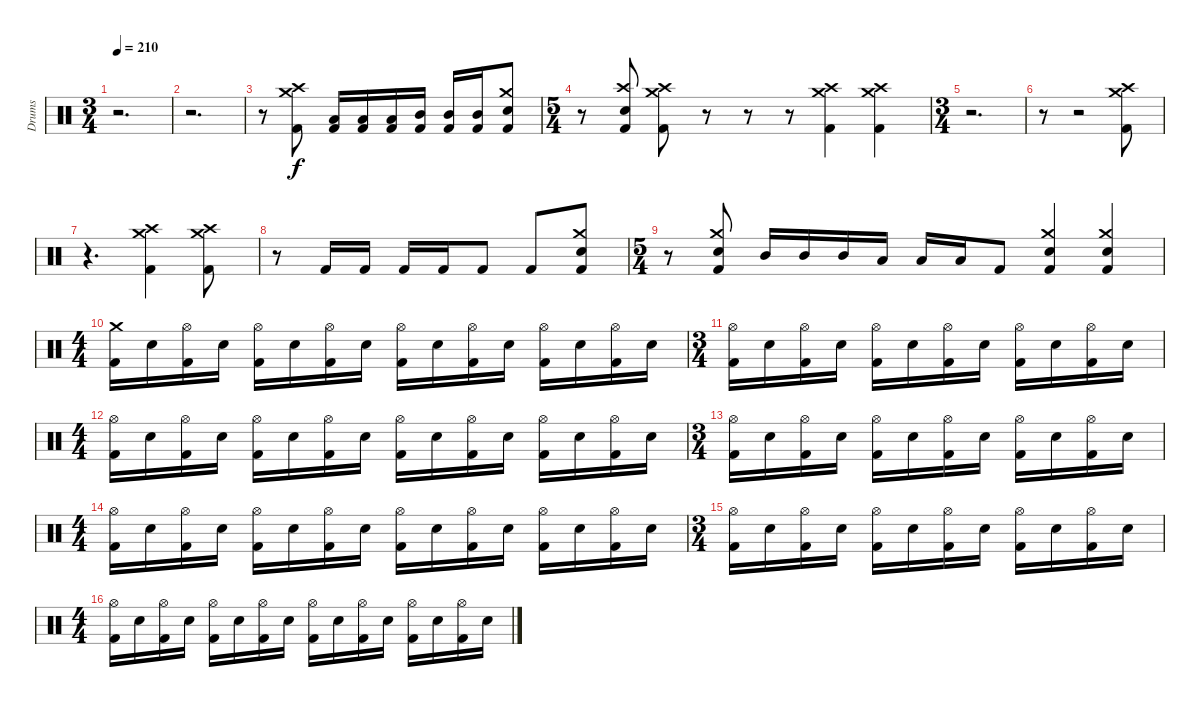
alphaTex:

\track ("Drums" "Drums") {instrument percussion}
\staff {score}
\articulation defaults
\ts (3 4)
\tempo 210
\clef neutral
\ks c
r.2{d dy f} |
r.2{d} |
r.8 ("Kick (hit) 2" "Crash high (hit)" "Crash medium (hit)").8 ("Kick (hit) 2" "Low Tom (hit)").16 ("Kick (hit) 2" "Low Tom (hit)").16 ("Kick (hit) 2" "Low Tom (hit)").16 ("Kick (hit) 2" "Mid Tom (hit)").16 ("Kick (hit) 2" "Mid Tom (hit)").16 ("Kick (hit) 2" "Mid Tom (hit)").16 ("Kick (hit) 2" "Electric Snare (hit)" "Crash medium (hit)").8 |
\ts (5 4)
r.8 ("Kick (hit) 2" "Electric Snare (hit)" "Crash high (hit)").8 ("Kick (hit) 2" "Crash high (hit)" "Crash medium (hit)").8 r.8 r.8 r.8 ("Kick (hit) 2" "Crash high (hit)" "Crash medium (hit)").4 ("Kick (hit) 2" "Crash high (hit)" "Crash medium (hit)").4 |
\ts (3 4)
r.2{d} |
r.8 r.2 ("Kick (hit) 2" "Crash high (hit)" "Crash medium (hit)").8 |
r.4{d} ("Kick (hit) 2" "Crash high (hit)" "Crash medium (hit)").4 ("Kick (hit) 2" "Crash high (hit)" "Crash medium (hit)").8 |
r.8 "Kick (hit) 2".16 "Kick (hit) 2".16 "Kick (hit) 2".16 "Kick (hit) 2".16 "Kick (hit) 2".8 "Kick (hit) 2".8 ("Kick (hit) 2" "Electric Snare (hit)" "Crash medium (hit)").8 |
\ts (5 4)
r.8 ("Kick (hit) 2" "Electric Snare (hit)" "Crash medium (hit)").8 "Mid Tom (hit)".16 "Mid Tom (hit)".16 "Mid Tom (hit)".16 "Low Tom (hit)".16 "Low Tom (hit)".16 "Low Tom (hit)".16 "Kick (hit) 2".8 ("Kick (hit) 2" "Electric Snare (hit)" "Crash medium (hit)").4 ("Kick (hit) 2" "Electric Snare (hit)" "Crash medium (hit)").4 |
\ts (4 4)
("Kick (hit) 2" "Crash medium (hit)").16 "Electric Snare (hit)".16 ("Kick (hit) 2" "Hi-Hat (open)").16 "Electric Snare (hit)".16 ("Kick (hit) 2" "Hi-Hat (open)").16 "Electric Snare (hit)".16 ("Kick (hit) 2" "Hi-Hat (open)").16 "Electric Snare (hit)".16 ("Kick (hit) 2" "Hi-Hat (open)").16 "Electric Snare (hit)".16 ("Kick (hit) 2" "Hi-Hat (open)").16 "Electric Snare (hit)".16 ("Kick (hit) 2" "Hi-Hat (open)").16 "Electric Snare (hit)".16 ("Kick (hit) 2" "Hi-Hat (open)").16 "Electric Snare (hit)".16 |
\ts (3 4)
("Kick (hit) 2" "Hi-Hat (open)").16 "Electric Snare (hit)".16 ("Kick (hit) 2" "Hi-Hat (open)").16 "Electric Snare (hit)".16 ("Kick (hit) 2" "Hi-Hat (open)").16 "Electric Snare (hit)".16 ("Kick (hit) 2" "Hi-Hat (open)").16 "Electric Snare (hit)".16 ("Kick (hit) 2" "Hi-Hat (open)").16 "Electric Snare (hit)".16 ("Kick (hit) 2" "Hi-Hat (open)").16 "Electric Snare (hit)".16 |
\ts (4 4)
("Kick (hit) 2" "Hi-Hat (open)").16 "Electric Snare (hit)".16 ("Kick (hit) 2" "Hi-Hat (open)").16 "Electric Snare (hit)".16 ("Kick (hit) 2" "Hi-Hat (open)").16 "Electric Snare (hit)".16 ("Kick (hit) 2" "Hi-Hat (open)").16 "Electric Snare (hit)".16 ("Kick (hit) 2" "Hi-Hat (open)").16 "Electric Snare (hit)".16 ("Kick (hit) 2" "Hi-Hat (open)").16 "Electric Snare (hit)".16 ("Kick (hit) 2" "Hi-Hat (open)").16 "Electric Snare (hit)".16 ("Kick (hit) 2" "Hi-Hat (open)").16 "Electric Snare (hit)".16 |
\ts (3 4)
("Kick (hit) 2" "Hi-Hat (open)").16 "Electric Snare (hit)".16 ("Kick (hit) 2" "Hi-Hat (open)").16 "Electric Snare (hit)".16 ("Kick (hit) 2" "Hi-Hat (open)").16 "Electric Snare (hit)".16 ("Kick (hit) 2" "Hi-Hat (open)").16 "Electric Snare (hit)".16 ("Kick (hit) 2" "Hi-Hat (open)").16 "Electric Snare (hit)".16 ("Kick (hit) 2" "Hi-Hat (open)").16 "Electric Snare (hit)".16 |
\ts (4 4)
("Kick (hit) 2" "Hi-Hat (open)").16 "Electric Snare (hit)".16 ("Kick (hit) 2" "Hi-Hat (open)").16 "Electric Snare (hit)".16 ("Kick (hit) 2" "Hi-Hat (open)").16 "Electric Snare (hit)".16 ("Kick (hit) 2" "Hi-Hat (open)").16 "Electric Snare (hit)".16 ("Kick (hit) 2" "Hi-Hat (open)").16 "Electric Snare (hit)".16 ("Kick (hit) 2" "Hi-Hat (open)").16 "Electric Snare (hit)".16 ("Kick (hit) 2" "Hi-Hat (open)").16 "Electric Snare (hit)".16 ("Kick (hit) 2" "Hi-Hat (open)").16 "Electric Snare (hit)".16 |
\ts (3 4)
("Kick (hit) 2" "Hi-Hat (open)").16 "Electric Snare (hit)".16 ("Kick (hit) 2" "Hi-Hat (open)").16 "Electric Snare (hit)".16 ("Kick (hit) 2" "Hi-Hat (open)").16 "Electric Snare (hit)".16 ("Kick (hit) 2" "Hi-Hat (open)").16 "Electric Snare (hit)".16 ("Kick (hit) 2" "Hi-Hat (open)").16 "Electric Snare (hit)".16 ("Kick (hit) 2" "Hi-Hat (open)").16 "Electric Snare (hit)".16 |
\ts (4 4)
("Kick (hit) 2" "Hi-Hat (open)").16 "Electric Snare (hit)".16 ("Kick (hit) 2" "Hi-Hat (open)").16 "Electric Snare (hit)".16 ("Kick (hit) 2" "Hi-Hat (open)").16 "Electric Snare (hit)".16 ("Kick (hit) 2" "Hi-Hat (open)").16 "Electric Snare (hit)".16 ("Kick (hit) 2" "Hi-Hat (open)").16 "Electric Snare (hit)".16 ("Kick (hit) 2" "Hi-Hat (open)").16 "Electric Snare (hit)".16 ("Kick (hit) 2" "Hi-Hat (open)").16 "Electric Snare (hit)".16 ("Kick (hit) 2" "Hi-Hat (open)").16 "Electric Snare (hit)".16
